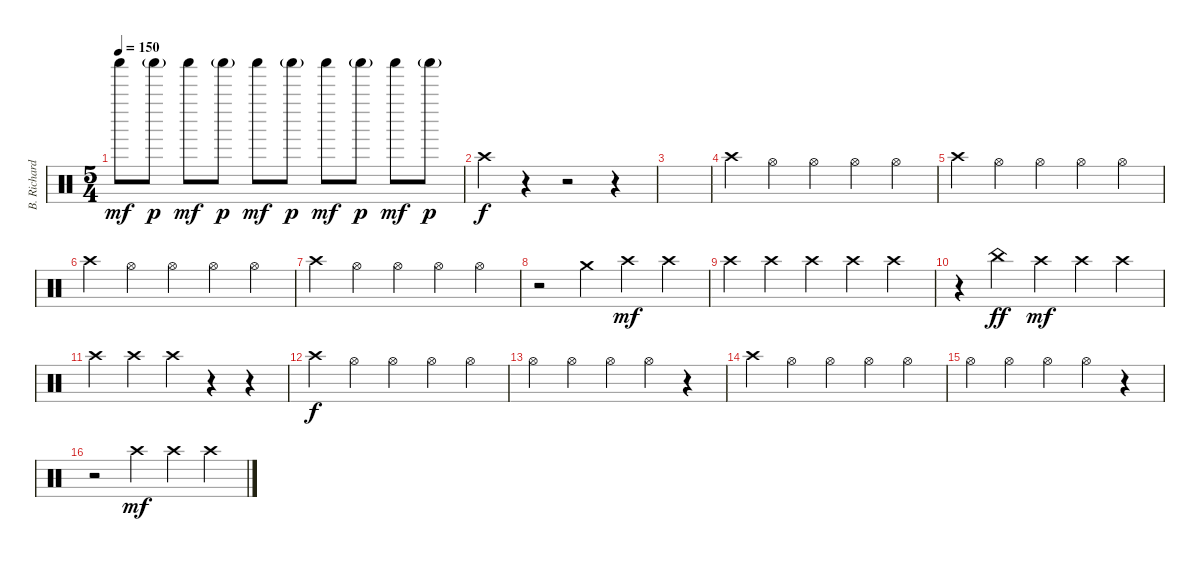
\track ("B. Richardson Drums" "B. Richard") {instrument percussion}
\staff {score}
\articulation defaults
\ts (5 4)
\tempo 150
\clef neutral
\ks c "Shaker (hit)".8{dy mf} "Shaker (hit)"{g}.8{dy p} "Shaker (hit)".8{dy mf} "Shaker (hit)"{g}.8{dy p} "Shaker (hit)".8{dy mf} "Shaker (hit)"{g}.8{dy p} "Shaker (hit)".8{dy mf} "Shaker (hit)"{g}.8{dy p} "Shaker (hit)".8{dy mf} "Shaker (hit)"{g}.8{dy p}
|
"Crash high (hit)".4{dy f} r.4 r.2 r.4 |
|
"Crash high (hit)".4 "Hi-Hat (open)".4 "Hi-Hat (open)".4 "Hi-Hat (open)".4 "Hi-Hat (open)".4 |
"Crash high (hit)".4 "Hi-Hat (open)".4 "Hi-Hat (open)".4 "Hi-Hat (open)".4 "Hi-Hat (open)".4 |
"Crash high (hit)".4 "Hi-Hat (open)".4 "Hi-Hat (open)".4 "Hi-Hat (open)".4 "Hi-Hat (open)".4 |
"Crash high (hit)".4 "Hi-Hat (open)".4 "Hi-Hat (open)".4 "Hi-Hat (open)".4 "Hi-Hat (open)".4 |
r.2 "Crash medium (hit)".4 "Crash high (hit)".4{dy mf} "Crash high (hit)".4 |
"Crash high (hit)".4 "Crash high (hit)".4 "Crash high (hit)".4 "Crash high (hit)".4 "Crash high (hit)".4 |
r.4 "China (hit)".4{dy ff} "Crash high (hit)".4{dy mf} "Crash high (hit)".4 "Crash high (hit)".4 |
"Crash high (hit)".4 "Crash high (hit)".4 "Crash high (hit)".4 r.4 r.4 |
"Crash high (hit)".4{dy f} "Hi-Hat (open)".4 "Hi-Hat (open)".4 "Hi-Hat (open)".4 "Hi-Hat (open)".4 |
"Hi-Hat (open)".4 "Hi-Hat (open)".4 "Hi-Hat (open)".4 "Hi-Hat (open)".4 r.4 |
"Crash high (hit)".4 "Hi-Hat (open)".4 "Hi-Hat (open)".4 "Hi-Hat (open)".4 "Hi-Hat (open)".4 |
"Hi-Hat (open)".4 "Hi-Hat (open)".4 "Hi-Hat (open)".4 "Hi-Hat (open)".4 r.4 |
r.2 "Crash high (hit)".4{dy mf} "Crash high (hit)".4 "Crash high (hit)".4
